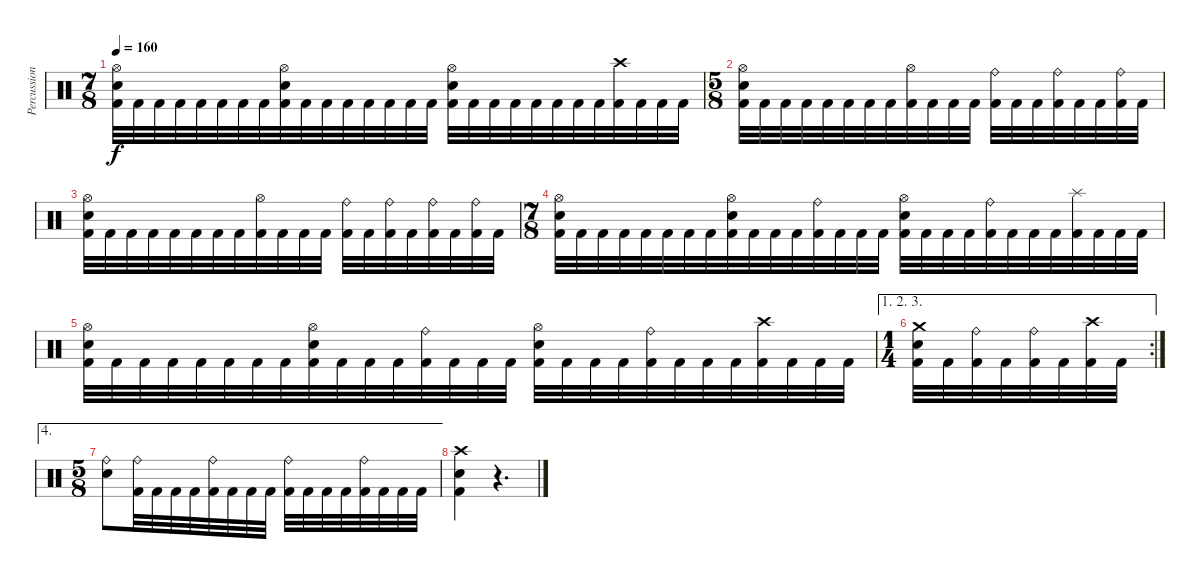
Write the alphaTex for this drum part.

\track ("Percussion [Patrick Robert]" "Percussion") {instrument percussion}
\staff {score}
\articulation defaults
\ts (7 8)
\tempo 160
\clef neutral
\ks c
("Hi-Hat (open)" "Electric Snare (hit)" "Kick (hit) 2").32{dy f} "Kick (hit) 2".32 "Kick (hit) 2".32 "Kick (hit) 2".32 "Kick (hit) 2".32 "Kick (hit) 2".32 "Kick (hit) 2".32 "Kick (hit) 2".32 ("Hi-Hat (open)" "Electric Snare (hit)" "Kick (hit) 2").32 "Kick (hit) 2".32 "Kick (hit) 2".32 "Kick (hit) 2".32 "Kick (hit) 2".32 "Kick (hit) 2".32 "Kick (hit) 2".32 "Kick (hit) 2".32 ("Hi-Hat (open)" "Electric Snare (hit)" "Kick (hit) 2").32 "Kick (hit) 2".32 "Kick (hit) 2".32 "Kick (hit) 2".32 "Kick (hit) 2".32 "Kick (hit) 2".32 "Kick (hit) 2".32 "Kick (hit) 2".32 ("Crash high (hit)" "Kick (hit) 2").32 "Kick (hit) 2".32 "Kick (hit) 2".32 "Kick (hit) 2".32 |
\ts (5 8)
("Hi-Hat (open)" "Electric Snare (hit)" "Kick (hit) 2").32 "Kick (hit) 2".32 "Kick (hit) 2".32 "Kick (hit) 2".32 "Kick (hit) 2".32 "Kick (hit) 2".32 "Kick (hit) 2".32 "Kick (hit) 2".32 ("Hi-Hat (open)" "Kick (hit) 2").32 "Kick (hit) 2".32 "Kick (hit) 2".32 "Kick (hit) 2".32 ("Ride (bell)" "Kick (hit) 2").32 "Kick (hit) 2".32 "Kick (hit) 2".32 ("Ride (bell)" "Kick (hit) 2").32 "Kick (hit) 2".32 "Kick (hit) 2".32 ("Ride (bell)" "Kick (hit) 2").32 "Kick (hit) 2".32 |
("Hi-Hat (open)" "Electric Snare (hit)" "Kick (hit) 2").32 "Kick (hit) 2".32 "Kick (hit) 2".32 "Kick (hit) 2".32 "Kick (hit) 2".32 "Kick (hit) 2".32 "Kick (hit) 2".32 "Kick (hit) 2".32 ("Hi-Hat (open)" "Kick (hit) 2").32 "Kick (hit) 2".32 "Kick (hit) 2".32 "Kick (hit) 2".32 ("Ride (bell)" "Kick (hit) 2").32 "Kick (hit) 2".32 ("Ride (bell)" "Kick (hit) 2").32 "Kick (hit) 2".32 ("Ride (bell)" "Kick (hit) 2").32 "Kick (hit) 2".32 ("Ride (bell)" "Kick (hit) 2").32 "Kick (hit) 2".32 |
\ts (7 8)
("Hi-Hat (open)" "Electric Snare (hit)" "Kick (hit) 2").32 "Kick (hit) 2".32 "Kick (hit) 2".32 "Kick (hit) 2".32 "Kick (hit) 2".32 "Kick (hit) 2".32 "Kick (hit) 2".32 "Kick (hit) 2".32 ("Hi-Hat (open)" "Electric Snare (hit)" "Kick (hit) 2").32 "Kick (hit) 2".32 "Kick (hit) 2".32 "Kick (hit) 2".32 ("Ride (bell)" "Kick (hit) 2").32 "Kick (hit) 2".32 "Kick (hit) 2".32 "Kick (hit) 2".32 ("Hi-Hat (open)" "Electric Snare (hit)" "Kick (hit) 2").32 "Kick (hit) 2".32 "Kick (hit) 2".32 "Kick (hit) 2".32 ("Ride (bell)" "Kick (hit) 2").32 "Kick (hit) 2".32 "Kick (hit) 2".32 "Kick (hit) 2".32 ("Splash (hit)" "Kick (hit) 2").32 "Kick (hit) 2".32 "Kick (hit) 2".32 "Kick (hit) 2".32 |
("Hi-Hat (open)" "Electric Snare (hit)" "Kick (hit) 2").32 "Kick (hit) 2".32 "Kick (hit) 2".32 "Kick (hit) 2".32 "Kick (hit) 2".32 "Kick (hit) 2".32 "Kick (hit) 2".32 "Kick (hit) 2".32 ("Hi-Hat (open)" "Electric Snare (hit)" "Kick (hit) 2").32 "Kick (hit) 2".32 "Kick (hit) 2".32 "Kick (hit) 2".32 ("Ride (bell)" "Kick (hit) 2").32 "Kick (hit) 2".32 "Kick (hit) 2".32 "Kick (hit) 2".32 ("Hi-Hat (open)" "Electric Snare (hit)" "Kick (hit) 2").32 "Kick (hit) 2".32 "Kick (hit) 2".32 "Kick (hit) 2".32 ("Ride (bell)" "Kick (hit) 2").32 "Kick (hit) 2".32 "Kick (hit) 2".32 "Kick (hit) 2".32 ("Crash high (hit)" "Kick (hit) 2").32 "Kick (hit) 2".32 "Kick (hit) 2".32 "Kick (hit) 2".32 |
\ae (1 2 3)
\rc 2
\ts (1 4)
("Crash medium (hit)" "Electric Snare (hit)" "Kick (hit) 2").32 "Kick (hit) 2".32 ("Ride (bell)" "Kick (hit) 2").32 "Kick (hit) 2".32 ("Ride (bell)" "Kick (hit) 2").32 "Kick (hit) 2".32 ("Crash high (hit)" "Kick (hit) 2").32 "Kick (hit) 2".32 |
\ae 4
\ts (5 8)
("Ride (bell)" "Electric Snare (hit)").8 ("Ride (bell)" "Kick (hit) 2").32 "Kick (hit) 2".32 "Kick (hit) 2".32 "Kick (hit) 2".32 ("Ride (bell)" "Kick (hit) 2").32 "Kick (hit) 2".32 "Kick (hit) 2".32 "Kick (hit) 2".32 ("Ride (bell)" "Kick (hit) 2").32 "Kick (hit) 2".32 "Kick (hit) 2".32 "Kick (hit) 2".32 ("Ride (bell)" "Kick (hit) 2").32 "Kick (hit) 2".32 "Kick (hit) 2".32 "Kick (hit) 2".32 |
("Crash high (hit)" "Electric Snare (hit)" "Kick (hit) 2").4 r.4{d}
